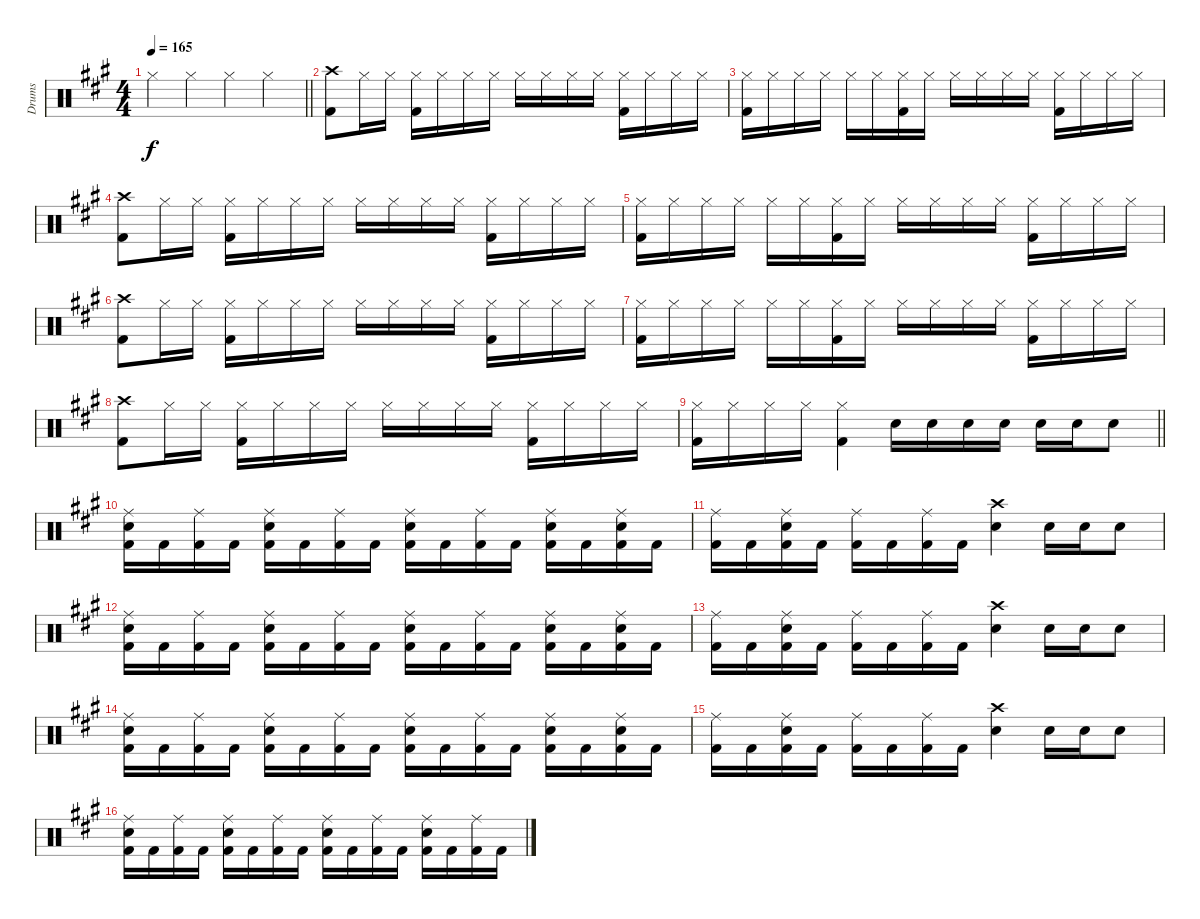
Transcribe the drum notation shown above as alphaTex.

\track ("Drums" "Drums") {instrument percussion}
\staff {score}
\articulation defaults
\ts (4 4)
\tempo 165
\clef neutral
\barLineRight lightlight
\ks a "Hi-Hat (closed)".4{dy f} "Hi-Hat (closed)".4 "Hi-Hat (closed)".4 "Hi-Hat (closed)".4
|
("Crash high (hit)" "Kick (hit) 2").8 "Hi-Hat (closed)".16 "Hi-Hat (closed)".16 ("Hi-Hat (closed)" "Kick (hit) 2").16 "Hi-Hat (closed)".16 "Hi-Hat (closed)".16 "Hi-Hat (closed)".16 "Hi-Hat (closed)".16 "Hi-Hat (closed)".16 "Hi-Hat (closed)".16 "Hi-Hat (closed)".16 ("Hi-Hat (closed)" "Kick (hit) 2").16 "Hi-Hat (closed)".16 "Hi-Hat (closed)".16 "Hi-Hat (closed)".16 |
("Hi-Hat (closed)" "Kick (hit) 2").16 "Hi-Hat (closed)".16 "Hi-Hat (closed)".16 "Hi-Hat (closed)".16 "Hi-Hat (closed)".16 "Hi-Hat (closed)".16 ("Hi-Hat (closed)" "Kick (hit) 2").16 "Hi-Hat (closed)".16 "Hi-Hat (closed)".16 "Hi-Hat (closed)".16 "Hi-Hat (closed)".16 "Hi-Hat (closed)".16 ("Hi-Hat (closed)" "Kick (hit) 2").16 "Hi-Hat (closed)".16 "Hi-Hat (closed)".16 "Hi-Hat (closed)".16 |
("Crash high (hit)" "Kick (hit) 2").8 "Hi-Hat (closed)".16 "Hi-Hat (closed)".16 ("Hi-Hat (closed)" "Kick (hit) 2").16 "Hi-Hat (closed)".16 "Hi-Hat (closed)".16 "Hi-Hat (closed)".16 "Hi-Hat (closed)".16 "Hi-Hat (closed)".16 "Hi-Hat (closed)".16 "Hi-Hat (closed)".16 ("Hi-Hat (closed)" "Kick (hit) 2").16 "Hi-Hat (closed)".16 "Hi-Hat (closed)".16 "Hi-Hat (closed)".16 |
("Hi-Hat (closed)" "Kick (hit) 2").16 "Hi-Hat (closed)".16 "Hi-Hat (closed)".16 "Hi-Hat (closed)".16 "Hi-Hat (closed)".16 "Hi-Hat (closed)".16 ("Hi-Hat (closed)" "Kick (hit) 2").16 "Hi-Hat (closed)".16 "Hi-Hat (closed)".16 "Hi-Hat (closed)".16 "Hi-Hat (closed)".16 "Hi-Hat (closed)".16 ("Hi-Hat (closed)" "Kick (hit) 2").16 "Hi-Hat (closed)".16 "Hi-Hat (closed)".16 "Hi-Hat (closed)".16 |
("Crash high (hit)" "Kick (hit) 2").8 "Hi-Hat (closed)".16 "Hi-Hat (closed)".16 ("Hi-Hat (closed)" "Kick (hit) 2").16 "Hi-Hat (closed)".16 "Hi-Hat (closed)".16 "Hi-Hat (closed)".16 "Hi-Hat (closed)".16 "Hi-Hat (closed)".16 "Hi-Hat (closed)".16 "Hi-Hat (closed)".16 ("Hi-Hat (closed)" "Kick (hit) 2").16 "Hi-Hat (closed)".16 "Hi-Hat (closed)".16 "Hi-Hat (closed)".16 |
("Hi-Hat (closed)" "Kick (hit) 2").16 "Hi-Hat (closed)".16 "Hi-Hat (closed)".16 "Hi-Hat (closed)".16 "Hi-Hat (closed)".16 "Hi-Hat (closed)".16 ("Hi-Hat (closed)" "Kick (hit) 2").16 "Hi-Hat (closed)".16 "Hi-Hat (closed)".16 "Hi-Hat (closed)".16 "Hi-Hat (closed)".16 "Hi-Hat (closed)".16 ("Hi-Hat (closed)" "Kick (hit) 2").16 "Hi-Hat (closed)".16 "Hi-Hat (closed)".16 "Hi-Hat (closed)".16 |
("Crash high (hit)" "Kick (hit) 2").8 "Hi-Hat (closed)".16 "Hi-Hat (closed)".16 ("Hi-Hat (closed)" "Kick (hit) 2").16 "Hi-Hat (closed)".16 "Hi-Hat (closed)".16 "Hi-Hat (closed)".16 "Hi-Hat (closed)".16 "Hi-Hat (closed)".16 "Hi-Hat (closed)".16 "Hi-Hat (closed)".16 ("Hi-Hat (closed)" "Kick (hit) 2").16 "Hi-Hat (closed)".16 "Hi-Hat (closed)".16 "Hi-Hat (closed)".16 |
\barLineRight lightlight
("Hi-Hat (closed)" "Kick (hit) 2").16 "Hi-Hat (closed)".16 "Hi-Hat (closed)".16 "Hi-Hat (closed)".16 ("Hi-Hat (closed)" "Kick (hit) 2").4 "Snare (hit) 2".16 "Snare (hit) 2".16 "Snare (hit) 2".16 "Snare (hit) 2".16 "Snare (hit) 2".16 "Snare (hit) 2".16 "Snare (hit) 2".8 |
("Ride (middle)" "Snare (hit) 2" "Kick (hit) 2").16 "Kick (hit) 2".16 ("Ride (middle)" "Kick (hit) 2").16 "Kick (hit) 2".16 ("Ride (middle)" "Snare (hit) 2" "Kick (hit) 2").16 "Kick (hit) 2".16 ("Ride (middle)" "Kick (hit) 2").16 "Kick (hit) 2".16 ("Ride (middle)" "Snare (hit) 2" "Kick (hit) 2").16 "Kick (hit) 2".16 ("Ride (middle)" "Kick (hit) 2").16 "Kick (hit) 2".16 ("Ride (middle)" "Snare (hit) 2" "Kick (hit) 2").16 "Kick (hit) 2".16 ("Ride (middle)" "Snare (hit) 2" "Kick (hit) 2").16 "Kick (hit) 2".16 |
("Ride (middle)" "Kick (hit) 2").16 "Kick (hit) 2".16 ("Ride (middle)" "Snare (hit) 2" "Kick (hit) 2").16 "Kick (hit) 2".16 ("Ride (middle)" "Kick (hit) 2").16 "Kick (hit) 2".16 ("Ride (middle)" "Kick (hit) 2").16 "Kick (hit) 2".16 ("Crash high (hit)" "Snare (hit) 2").4 "Snare (hit) 2".16 "Snare (hit) 2".16 "Snare (hit) 2".8 |
("Ride (middle)" "Snare (hit) 2" "Kick (hit) 2").16 "Kick (hit) 2".16 ("Ride (middle)" "Kick (hit) 2").16 "Kick (hit) 2".16 ("Ride (middle)" "Snare (hit) 2" "Kick (hit) 2").16 "Kick (hit) 2".16 ("Ride (middle)" "Kick (hit) 2").16 "Kick (hit) 2".16 ("Ride (middle)" "Snare (hit) 2" "Kick (hit) 2").16 "Kick (hit) 2".16 ("Ride (middle)" "Kick (hit) 2").16 "Kick (hit) 2".16 ("Ride (middle)" "Snare (hit) 2" "Kick (hit) 2").16 "Kick (hit) 2".16 ("Ride (middle)" "Snare (hit) 2" "Kick (hit) 2").16 "Kick (hit) 2".16 |
("Ride (middle)" "Kick (hit) 2").16 "Kick (hit) 2".16 ("Ride (middle)" "Snare (hit) 2" "Kick (hit) 2").16 "Kick (hit) 2".16 ("Ride (middle)" "Kick (hit) 2").16 "Kick (hit) 2".16 ("Ride (middle)" "Kick (hit) 2").16 "Kick (hit) 2".16 ("Crash high (hit)" "Snare (hit) 2").4 "Snare (hit) 2".16 "Snare (hit) 2".16 "Snare (hit) 2".8 |
("Ride (middle)" "Snare (hit) 2" "Kick (hit) 2").16 "Kick (hit) 2".16 ("Ride (middle)" "Kick (hit) 2").16 "Kick (hit) 2".16 ("Ride (middle)" "Snare (hit) 2" "Kick (hit) 2").16 "Kick (hit) 2".16 ("Ride (middle)" "Kick (hit) 2").16 "Kick (hit) 2".16 ("Ride (middle)" "Snare (hit) 2" "Kick (hit) 2").16 "Kick (hit) 2".16 ("Ride (middle)" "Kick (hit) 2").16 "Kick (hit) 2".16 ("Ride (middle)" "Snare (hit) 2" "Kick (hit) 2").16 "Kick (hit) 2".16 ("Ride (middle)" "Snare (hit) 2" "Kick (hit) 2").16 "Kick (hit) 2".16 |
("Ride (middle)" "Kick (hit) 2").16 "Kick (hit) 2".16 ("Ride (middle)" "Snare (hit) 2" "Kick (hit) 2").16 "Kick (hit) 2".16 ("Ride (middle)" "Kick (hit) 2").16 "Kick (hit) 2".16 ("Ride (middle)" "Kick (hit) 2").16 "Kick (hit) 2".16 ("Crash high (hit)" "Snare (hit) 2").4 "Snare (hit) 2".16 "Snare (hit) 2".16 "Snare (hit) 2".8 |
("Ride (middle)" "Snare (hit) 2" "Kick (hit) 2").16 "Kick (hit) 2".16 ("Ride (middle)" "Kick (hit) 2").16 "Kick (hit) 2".16 ("Ride (middle)" "Snare (hit) 2" "Kick (hit) 2").16 "Kick (hit) 2".16 ("Ride (middle)" "Kick (hit) 2").16 "Kick (hit) 2".16 ("Ride (middle)" "Snare (hit) 2" "Kick (hit) 2").16 "Kick (hit) 2".16 ("Ride (middle)" "Kick (hit) 2").16 "Kick (hit) 2".16 ("Ride (middle)" "Snare (hit) 2" "Kick (hit) 2").16 "Kick (hit) 2".16 ("Ride (middle)" "Kick (hit) 2").16 "Kick (hit) 2".16
